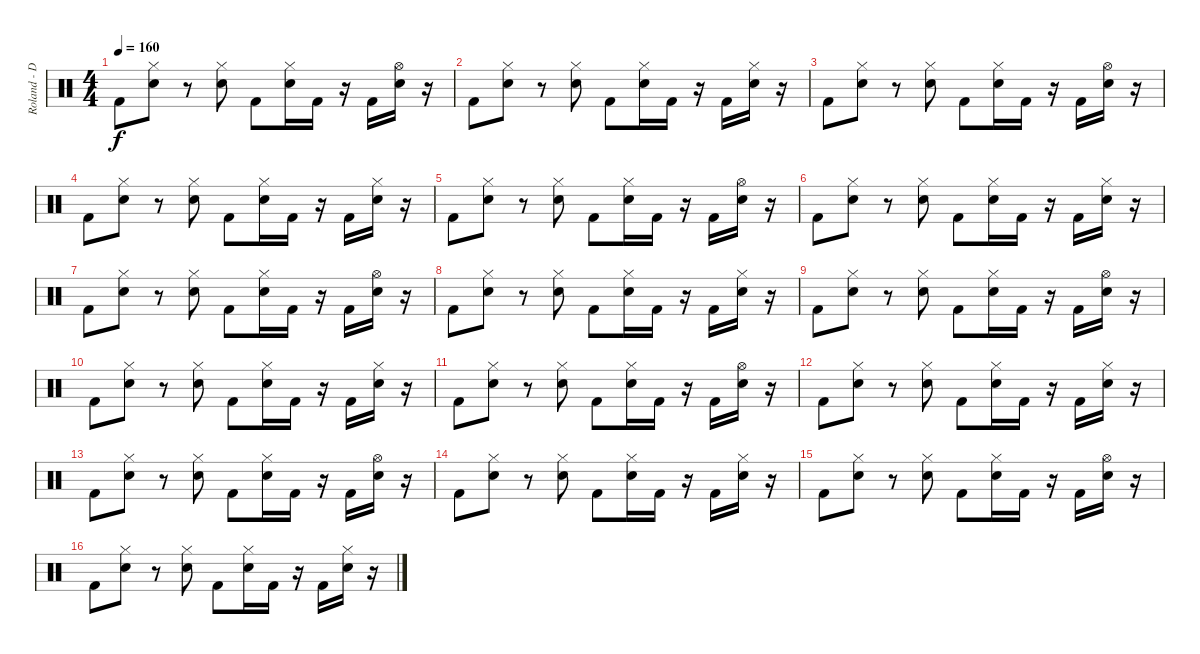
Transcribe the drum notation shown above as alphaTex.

\track ("Roland - Drums" "Roland - D") {instrument percussion}
\staff {score}
\articulation defaults
\ts (4 4)
\tempo 160
\clef neutral
\ks c "Kick (hit) 2".8{dy f}
("Hi-Hat (closed)" "Snare (hit) 2").8 r.8 ("Hi-Hat (closed)" "Snare (hit) 2").8 "Kick (hit) 2".8 ("Hi-Hat (closed)" "Snare (hit) 2").16 "Kick (hit) 2".16 r.16 "Kick (hit) 2".16 ("Hi-Hat (open)" "Snare (hit) 2").16 r.16 |
"Kick (hit) 2".8 ("Hi-Hat (closed)" "Snare (hit) 2").8 r.8 ("Hi-Hat (closed)" "Snare (hit) 2").8 "Kick (hit) 2".8 ("Hi-Hat (closed)" "Snare (hit) 2").16 "Kick (hit) 2".16 r.16 "Kick (hit) 2".16 ("Hi-Hat (closed)" "Snare (hit) 2").16 r.16 |
"Kick (hit) 2".8 ("Hi-Hat (closed)" "Snare (hit) 2").8 r.8 ("Hi-Hat (closed)" "Snare (hit) 2").8 "Kick (hit) 2".8 ("Hi-Hat (closed)" "Snare (hit) 2").16 "Kick (hit) 2".16 r.16 "Kick (hit) 2".16 ("Hi-Hat (open)" "Snare (hit) 2").16 r.16 |
"Kick (hit) 2".8 ("Hi-Hat (closed)" "Snare (hit) 2").8 r.8 ("Hi-Hat (closed)" "Snare (hit) 2").8 "Kick (hit) 2".8 ("Hi-Hat (closed)" "Snare (hit) 2").16 "Kick (hit) 2".16 r.16 "Kick (hit) 2".16 ("Hi-Hat (closed)" "Snare (hit) 2").16 r.16 |
"Kick (hit) 2".8 ("Hi-Hat (closed)" "Snare (hit) 2").8 r.8 ("Hi-Hat (closed)" "Snare (hit) 2").8 "Kick (hit) 2".8 ("Hi-Hat (closed)" "Snare (hit) 2").16 "Kick (hit) 2".16 r.16 "Kick (hit) 2".16 ("Hi-Hat (open)" "Snare (hit) 2").16 r.16 |
"Kick (hit) 2".8 ("Hi-Hat (closed)" "Snare (hit) 2").8 r.8 ("Hi-Hat (closed)" "Snare (hit) 2").8 "Kick (hit) 2".8 ("Hi-Hat (closed)" "Snare (hit) 2").16 "Kick (hit) 2".16 r.16 "Kick (hit) 2".16 ("Hi-Hat (closed)" "Snare (hit) 2").16 r.16 |
"Kick (hit) 2".8 ("Hi-Hat (closed)" "Snare (hit) 2").8 r.8 ("Hi-Hat (closed)" "Snare (hit) 2").8 "Kick (hit) 2".8 ("Hi-Hat (closed)" "Snare (hit) 2").16 "Kick (hit) 2".16 r.16 "Kick (hit) 2".16 ("Hi-Hat (open)" "Snare (hit) 2").16 r.16 |
"Kick (hit) 2".8 ("Hi-Hat (closed)" "Snare (hit) 2").8 r.8 ("Hi-Hat (closed)" "Snare (hit) 2").8 "Kick (hit) 2".8 ("Hi-Hat (closed)" "Snare (hit) 2").16 "Kick (hit) 2".16 r.16 "Kick (hit) 2".16 ("Hi-Hat (closed)" "Snare (hit) 2").16 r.16 |
"Kick (hit) 2".8 ("Hi-Hat (closed)" "Snare (hit) 2").8 r.8 ("Hi-Hat (closed)" "Snare (hit) 2").8 "Kick (hit) 2".8 ("Hi-Hat (closed)" "Snare (hit) 2").16 "Kick (hit) 2".16 r.16 "Kick (hit) 2".16 ("Hi-Hat (open)" "Snare (hit) 2").16 r.16 |
"Kick (hit) 2".8 ("Hi-Hat (closed)" "Snare (hit) 2").8 r.8 ("Hi-Hat (closed)" "Snare (hit) 2").8 "Kick (hit) 2".8 ("Hi-Hat (closed)" "Snare (hit) 2").16 "Kick (hit) 2".16 r.16 "Kick (hit) 2".16 ("Hi-Hat (closed)" "Snare (hit) 2").16 r.16 |
"Kick (hit) 2".8 ("Hi-Hat (closed)" "Snare (hit) 2").8 r.8 ("Hi-Hat (closed)" "Snare (hit) 2").8 "Kick (hit) 2".8 ("Hi-Hat (closed)" "Snare (hit) 2").16 "Kick (hit) 2".16 r.16 "Kick (hit) 2".16 ("Hi-Hat (open)" "Snare (hit) 2").16 r.16 |
"Kick (hit) 2".8 ("Hi-Hat (closed)" "Snare (hit) 2").8 r.8 ("Hi-Hat (closed)" "Snare (hit) 2").8 "Kick (hit) 2".8 ("Hi-Hat (closed)" "Snare (hit) 2").16 "Kick (hit) 2".16 r.16 "Kick (hit) 2".16 ("Hi-Hat (closed)" "Snare (hit) 2").16 r.16 |
"Kick (hit) 2".8 ("Hi-Hat (closed)" "Snare (hit) 2").8 r.8 ("Hi-Hat (closed)" "Snare (hit) 2").8 "Kick (hit) 2".8 ("Hi-Hat (closed)" "Snare (hit) 2").16 "Kick (hit) 2".16 r.16 "Kick (hit) 2".16 ("Hi-Hat (open)" "Snare (hit) 2").16 r.16 |
"Kick (hit) 2".8 ("Hi-Hat (closed)" "Snare (hit) 2").8 r.8 ("Hi-Hat (closed)" "Snare (hit) 2").8 "Kick (hit) 2".8 ("Hi-Hat (closed)" "Snare (hit) 2").16 "Kick (hit) 2".16 r.16 "Kick (hit) 2".16 ("Hi-Hat (closed)" "Snare (hit) 2").16 r.16 |
"Kick (hit) 2".8 ("Hi-Hat (closed)" "Snare (hit) 2").8 r.8 ("Hi-Hat (closed)" "Snare (hit) 2").8 "Kick (hit) 2".8 ("Hi-Hat (closed)" "Snare (hit) 2").16 "Kick (hit) 2".16 r.16 "Kick (hit) 2".16 ("Hi-Hat (open)" "Snare (hit) 2").16 r.16 |
"Kick (hit) 2".8 ("Hi-Hat (closed)" "Snare (hit) 2").8 r.8 ("Hi-Hat (closed)" "Snare (hit) 2").8 "Kick (hit) 2".8 ("Hi-Hat (closed)" "Snare (hit) 2").16 "Kick (hit) 2".16 r.16 "Kick (hit) 2".16 ("Hi-Hat (closed)" "Snare (hit) 2").16 r.16
